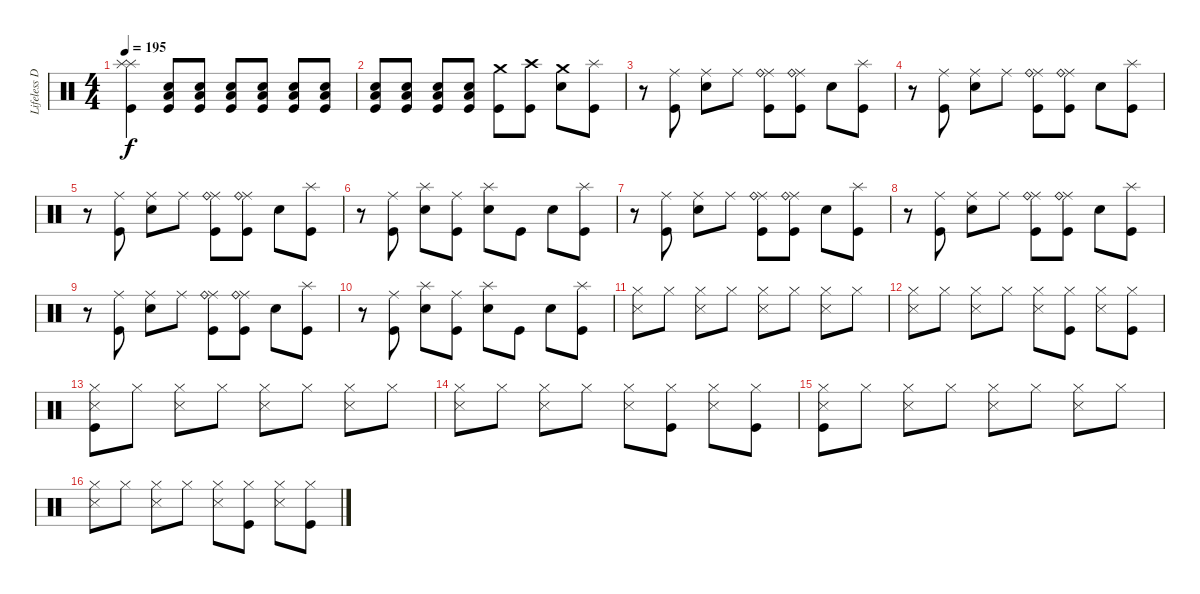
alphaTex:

\track ("Lifeless Drums" "Lifeless D") {instrument percussion}
\staff {score}
\articulation defaults
\ts (4 4)
\tempo 195
\clef neutral
\ks c
("Splash (hit)" "Splash (hit)" "Kick (hit)").4{dy f} ("Low Tom (hit)" "Electric Snare (hit)" "Kick (hit)").8 ("Low Tom (hit)" "Electric Snare (hit)" "Kick (hit)").8 ("Low Tom (hit)" "Electric Snare (hit)" "Kick (hit)").8 ("Low Tom (hit)" "Electric Snare (hit)" "Kick (hit)").8 ("Low Tom (hit)" "Electric Snare (hit)" "Kick (hit)").8 ("Low Tom (hit)" "Electric Snare (hit)" "Kick (hit)").8 |
("Low Tom (hit)" "Electric Snare (hit)" "Kick (hit)").8 ("Low Tom (hit)" "Electric Snare (hit)" "Kick (hit)").8 ("Low Tom (hit)" "Electric Snare (hit)" "Kick (hit)").8 ("Low Tom (hit)" "Electric Snare (hit)" "Kick (hit)").8 ("Crash medium (hit)" "Kick (hit)").8 ("Crash high (hit)" "Kick (hit)").8 ("Crash medium (hit)" "Electric Snare (hit)").8 ("Splash (hit)" "Kick (hit)").8 |
r.8 ("Ride (middle)" "Kick (hit)").8 ("Ride (middle)" "Electric Snare (hit)").8 "Ride (middle)".8 ("Ride (middle)" "Ride (bell)" "Kick (hit)").8 ("Ride (middle)" "Ride (bell)" "Kick (hit)").8 "Electric Snare (hit)".8 ("Splash (hit)" "Kick (hit)").8 |
r.8 ("Ride (middle)" "Kick (hit)").8 ("Ride (middle)" "Electric Snare (hit)").8 "Ride (middle)".8 ("Ride (middle)" "Ride (bell)" "Kick (hit)").8 ("Ride (middle)" "Ride (bell)" "Kick (hit)").8 "Electric Snare (hit)".8 ("Splash (hit)" "Kick (hit)").8 |
r.8 ("Ride (middle)" "Kick (hit)").8 ("Ride (middle)" "Electric Snare (hit)").8 "Ride (middle)".8 ("Ride (middle)" "Ride (bell)" "Kick (hit)").8 ("Ride (middle)" "Ride (bell)" "Kick (hit)").8 "Electric Snare (hit)".8 ("Splash (hit)" "Kick (hit)").8 |
r.8 ("Ride (middle)" "Kick (hit)").8 ("Splash (hit)" "Electric Snare (hit)").8 ("Ride (middle)" "Kick (hit)").8 ("Splash (hit)" "Electric Snare (hit)").8 "Kick (hit)".8 "Electric Snare (hit)".8 ("Splash (hit)" "Kick (hit)").8 |
r.8 ("Ride (middle)" "Kick (hit)").8 ("Ride (middle)" "Electric Snare (hit)").8 "Ride (middle)".8 ("Ride (middle)" "Ride (bell)" "Kick (hit)").8 ("Ride (middle)" "Ride (bell)" "Kick (hit)").8 "Electric Snare (hit)".8 ("Splash (hit)" "Kick (hit)").8 |
r.8 ("Ride (middle)" "Kick (hit)").8 ("Ride (middle)" "Electric Snare (hit)").8 "Ride (middle)".8 ("Ride (middle)" "Ride (bell)" "Kick (hit)").8 ("Ride (middle)" "Ride (bell)" "Kick (hit)").8 "Electric Snare (hit)".8 ("Splash (hit)" "Kick (hit)").8 |
r.8 ("Ride (middle)" "Kick (hit)").8 ("Ride (middle)" "Electric Snare (hit)").8 "Ride (middle)".8 ("Ride (middle)" "Ride (bell)" "Kick (hit)").8 ("Ride (middle)" "Ride (bell)" "Kick (hit)").8 "Electric Snare (hit)".8 ("Splash (hit)" "Kick (hit)").8 |
r.8 ("Ride (middle)" "Kick (hit)").8 ("Splash (hit)" "Electric Snare (hit)").8 ("Ride (middle)" "Kick (hit)").8 ("Splash (hit)" "Electric Snare (hit)").8 "Kick (hit)".8 "Electric Snare (hit)".8 ("Splash (hit)" "Kick (hit)").8 |
("Hi-Hat (closed)" "Snare (side stick) 3").8 "Hi-Hat (closed)".8 ("Hi-Hat (closed)" "Snare (side stick) 3").8 "Hi-Hat (closed)".8 ("Hi-Hat (closed)" "Snare (side stick) 3").8 "Hi-Hat (closed)".8 ("Hi-Hat (closed)" "Snare (side stick) 3").8 "Hi-Hat (closed)".8 |
("Hi-Hat (closed)" "Snare (side stick) 3").8 "Hi-Hat (closed)".8 ("Hi-Hat (closed)" "Snare (side stick) 3").8 "Hi-Hat (closed)".8 ("Hi-Hat (closed)" "Snare (side stick) 3").8 ("Hi-Hat (closed)" "Kick (hit)").8 ("Hi-Hat (closed)" "Snare (side stick) 3").8 ("Hi-Hat (closed)" "Kick (hit)").8 |
("Hi-Hat (closed)" "Snare (side stick) 3" "Kick (hit)").8 "Hi-Hat (closed)".8 ("Hi-Hat (closed)" "Snare (side stick) 3").8 "Hi-Hat (closed)".8 ("Hi-Hat (closed)" "Snare (side stick) 3").8 "Hi-Hat (closed)".8 ("Hi-Hat (closed)" "Snare (side stick) 3").8 "Hi-Hat (closed)".8 |
("Hi-Hat (closed)" "Snare (side stick) 3").8 "Hi-Hat (closed)".8 ("Hi-Hat (closed)" "Snare (side stick) 3").8 "Hi-Hat (closed)".8 ("Hi-Hat (closed)" "Snare (side stick) 3").8 ("Hi-Hat (closed)" "Kick (hit)").8 ("Hi-Hat (closed)" "Snare (side stick) 3").8 ("Hi-Hat (closed)" "Kick (hit)").8 |
("Hi-Hat (closed)" "Snare (side stick) 3" "Kick (hit)").8 "Hi-Hat (closed)".8 ("Hi-Hat (closed)" "Snare (side stick) 3").8 "Hi-Hat (closed)".8 ("Hi-Hat (closed)" "Snare (side stick) 3").8 "Hi-Hat (closed)".8 ("Hi-Hat (closed)" "Snare (side stick) 3").8 "Hi-Hat (closed)".8 |
("Hi-Hat (closed)" "Snare (side stick) 3").8 "Hi-Hat (closed)".8 ("Hi-Hat (closed)" "Snare (side stick) 3").8 "Hi-Hat (closed)".8 ("Hi-Hat (closed)" "Snare (side stick) 3").8 ("Hi-Hat (closed)" "Kick (hit)").8 ("Hi-Hat (closed)" "Snare (side stick) 3").8 ("Hi-Hat (closed)" "Kick (hit)").8
